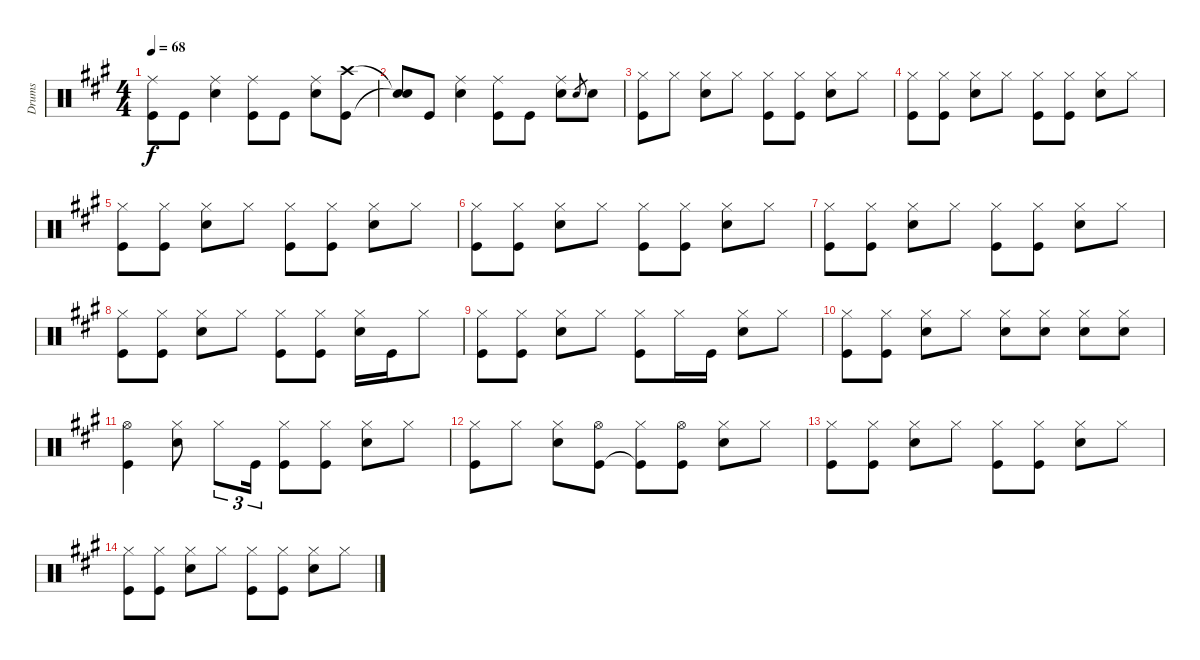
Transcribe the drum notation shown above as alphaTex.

\track ("Drums" "Drums") {instrument percussion}
\staff {score}
\articulation defaults
\ts (4 4)
\tempo 68
\clef neutral
\ks a
("Ride (middle)" "Kick (hit)").8{dy f} "Kick (hit)".8 ("Ride (middle)" "Electric Snare (hit)").4 ("Ride (middle)" "Kick (hit)").8 "Kick (hit)".8 ("Ride (middle)" "Electric Snare (hit)").8 ("Crash high (hit)" "Kick (hit)").8 |
("Snare (hit)"{t} "Snare (hit)"{t}).8 "Kick (hit)".8 ("Ride (middle)" "Electric Snare (hit)").4 ("Ride (middle)" "Kick (hit)").8 "Kick (hit)".8 ("Ride (middle)" "Electric Snare (hit)").8 "Electric Snare (hit)".8{gr} "Electric Snare (hit)".8 |
("Hi-Hat (closed)" "Kick (hit)").8 "Hi-Hat (closed)".8 ("Hi-Hat (closed)" "Electric Snare (hit)").8 "Hi-Hat (closed)".8 ("Hi-Hat (closed)" "Kick (hit)").8 ("Hi-Hat (closed)" "Kick (hit)").8 ("Hi-Hat (closed)" "Electric Snare (hit)").8 "Hi-Hat (closed)".8 |
("Hi-Hat (closed)" "Kick (hit)").8 ("Hi-Hat (closed)" "Kick (hit)").8 ("Hi-Hat (closed)" "Electric Snare (hit)").8 "Hi-Hat (closed)".8 ("Hi-Hat (closed)" "Kick (hit)").8 ("Hi-Hat (closed)" "Kick (hit)").8 ("Hi-Hat (closed)" "Electric Snare (hit)").8 "Hi-Hat (closed)".8 |
("Hi-Hat (closed)" "Kick (hit)").8 ("Hi-Hat (closed)" "Kick (hit)").8 ("Hi-Hat (closed)" "Electric Snare (hit)").8 "Hi-Hat (closed)".8 ("Hi-Hat (closed)" "Kick (hit)").8 ("Hi-Hat (closed)" "Kick (hit)").8 ("Hi-Hat (closed)" "Electric Snare (hit)").8 "Hi-Hat (closed)".8 |
("Hi-Hat (closed)" "Kick (hit)").8 ("Hi-Hat (closed)" "Kick (hit)").8 ("Hi-Hat (closed)" "Electric Snare (hit)").8 "Hi-Hat (closed)".8 ("Hi-Hat (closed)" "Kick (hit)").8 ("Hi-Hat (closed)" "Kick (hit)").8 ("Hi-Hat (closed)" "Electric Snare (hit)").8 "Hi-Hat (closed)".8 |
("Hi-Hat (closed)" "Kick (hit)").8 ("Hi-Hat (closed)" "Kick (hit)").8 ("Hi-Hat (closed)" "Electric Snare (hit)").8 "Hi-Hat (closed)".8 ("Hi-Hat (closed)" "Kick (hit)").8 ("Hi-Hat (closed)" "Kick (hit)").8 ("Hi-Hat (closed)" "Electric Snare (hit)").8 "Hi-Hat (closed)".8 |
("Hi-Hat (closed)" "Kick (hit)").8 ("Hi-Hat (closed)" "Kick (hit)").8 ("Hi-Hat (closed)" "Electric Snare (hit)").8 "Hi-Hat (closed)".8 ("Hi-Hat (closed)" "Kick (hit)").8 ("Hi-Hat (closed)" "Kick (hit)").8 ("Hi-Hat (closed)" "Electric Snare (hit)").16 "Kick (hit)".16 "Hi-Hat (closed)".8 |
("Hi-Hat (closed)" "Kick (hit)").8 ("Hi-Hat (closed)" "Kick (hit)").8 ("Hi-Hat (closed)" "Electric Snare (hit)").8 "Hi-Hat (closed)".8 ("Hi-Hat (closed)" "Kick (hit)").8 "Hi-Hat (closed)".16 "Kick (hit)".16 ("Hi-Hat (closed)" "Electric Snare (hit)").8 "Hi-Hat (closed)".8 |
("Hi-Hat (closed)" "Kick (hit)").8 ("Hi-Hat (closed)" "Kick (hit)").8 ("Hi-Hat (closed)" "Electric Snare (hit)").8 "Hi-Hat (closed)".8 ("Hi-Hat (closed)" "Electric Snare (hit)").8 ("Hi-Hat (closed)" "Electric Snare (hit)").8 ("Hi-Hat (closed)" "Electric Snare (hit)").8 ("Hi-Hat (closed)" "Electric Snare (hit)").8 |
("Hi-Hat (open)" "Kick (hit)").4 ("Hi-Hat (closed)" "Electric Snare (hit)").8 "Hi-Hat (closed)".8{tu (3 2)} "Kick (hit)".16{tu (3 2)} ("Hi-Hat (closed)" "Kick (hit)").8 ("Hi-Hat (closed)" "Kick (hit)").8 ("Hi-Hat (closed)" "Electric Snare (hit)").8 "Hi-Hat (closed)".8 |
("Hi-Hat (closed)" "Kick (hit)").8 "Hi-Hat (closed)".8 ("Hi-Hat (closed)" "Electric Snare (hit)").8 ("Hi-Hat (open)" "Kick (hit)").8 ("Hi-Hat (closed)" "Kick (hit)"{t}).8 ("Hi-Hat (open)" "Kick (hit)").8 ("Hi-Hat (closed)" "Electric Snare (hit)").8 "Hi-Hat (closed)".8 |
("Hi-Hat (closed)" "Kick (hit)").8 ("Hi-Hat (closed)" "Kick (hit)").8 ("Hi-Hat (closed)" "Electric Snare (hit)").8 "Hi-Hat (closed)".8 ("Hi-Hat (closed)" "Kick (hit)").8 ("Hi-Hat (closed)" "Kick (hit)").8 ("Hi-Hat (closed)" "Electric Snare (hit)").8 "Hi-Hat (closed)".8 |
("Hi-Hat (closed)" "Kick (hit)").8 ("Hi-Hat (closed)" "Kick (hit)").8 ("Hi-Hat (closed)" "Electric Snare (hit)").8 "Hi-Hat (closed)".8 ("Hi-Hat (closed)" "Kick (hit)").8 ("Hi-Hat (closed)" "Kick (hit)").8 ("Hi-Hat (closed)" "Electric Snare (hit)").8 "Hi-Hat (closed)".8
